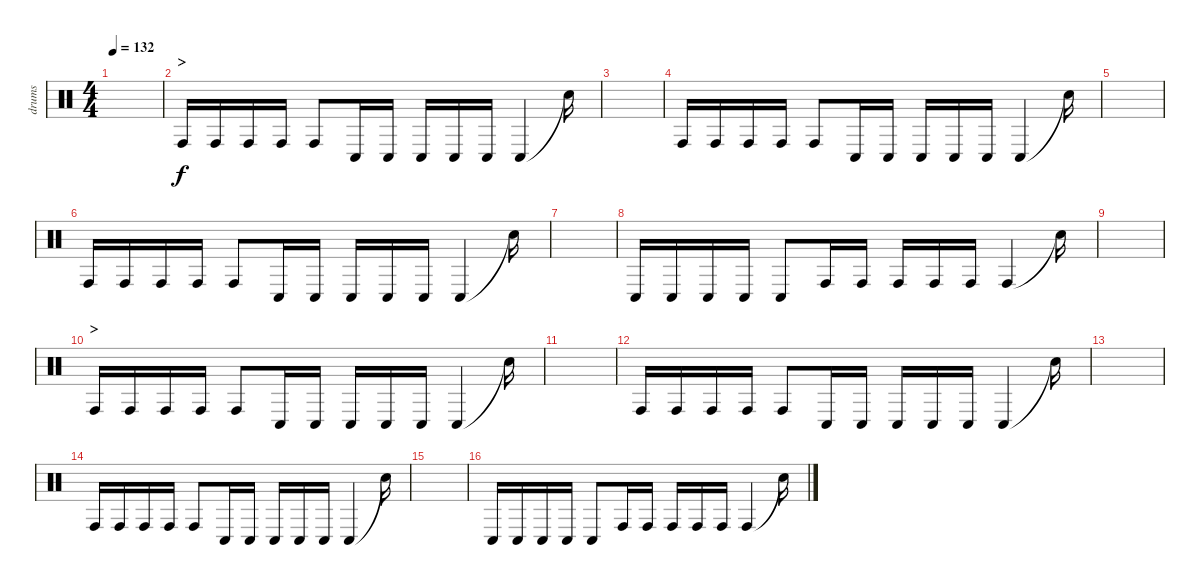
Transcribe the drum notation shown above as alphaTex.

\track ("drums" "drums") {instrument percussion}
\staff {score}
\articulation defaults
\ts (4 4)
\tempo 132
\clef neutral
\ks c
|
\section ("" ">")
"Conga high (hit)".16 "Conga high (hit)".16 "Conga high (hit)".16 "Conga high (hit)".16 "Conga high (hit)".8 "Conga low (hit)".16 "Conga low (hit)".16 "Conga low (hit)".16 "Conga low (hit)".16 "Conga low (hit)".16 "Conga low (hit)".4 "Snare (hit)"{t}.16 |
|
"Conga high (hit)".16 "Conga high (hit)".16 "Conga high (hit)".16 "Conga high (hit)".16 "Conga high (hit)".8 "Conga low (hit)".16 "Conga low (hit)".16 "Conga low (hit)".16 "Conga low (hit)".16 "Conga low (hit)".16 "Conga low (hit)".4 "Snare (hit)"{t}.16 |
|
"Conga high (hit)".16 "Conga high (hit)".16 "Conga high (hit)".16 "Conga high (hit)".16 "Conga high (hit)".8 "Conga low (hit)".16 "Conga low (hit)".16 "Conga low (hit)".16 "Conga low (hit)".16 "Conga low (hit)".16 "Conga low (hit)".4 "Snare (hit)"{t}.16 |
|
"Conga low (hit)".16 "Conga low (hit)".16 "Conga low (hit)".16 "Conga low (hit)".16 "Conga low (hit)".8 "Conga high (hit)".16 "Conga high (hit)".16 "Conga high (hit)".16 "Conga high (hit)".16 "Conga high (hit)".16 "Conga high (hit)".4 "Snare (hit)"{t}.16 |
|
\section ("" ">")
"Conga high (hit)".16 "Conga high (hit)".16 "Conga high (hit)".16 "Conga high (hit)".16 "Conga high (hit)".8 "Conga low (hit)".16 "Conga low (hit)".16 "Conga low (hit)".16 "Conga low (hit)".16 "Conga low (hit)".16 "Conga low (hit)".4 "Snare (hit)"{t}.16 |
|
"Conga high (hit)".16 "Conga high (hit)".16 "Conga high (hit)".16 "Conga high (hit)".16 "Conga high (hit)".8 "Conga low (hit)".16 "Conga low (hit)".16 "Conga low (hit)".16 "Conga low (hit)".16 "Conga low (hit)".16 "Conga low (hit)".4 "Snare (hit)"{t}.16 |
|
"Conga high (hit)".16 "Conga high (hit)".16 "Conga high (hit)".16 "Conga high (hit)".16 "Conga high (hit)".8 "Conga low (hit)".16 "Conga low (hit)".16 "Conga low (hit)".16 "Conga low (hit)".16 "Conga low (hit)".16 "Conga low (hit)".4 "Snare (hit)"{t}.16 |
|
"Conga low (hit)".16 "Conga low (hit)".16 "Conga low (hit)".16 "Conga low (hit)".16 "Conga low (hit)".8 "Conga high (hit)".16 "Conga high (hit)".16 "Conga high (hit)".16 "Conga high (hit)".16 "Conga high (hit)".16 "Conga high (hit)".4 "Snare (hit)"{t}.16
